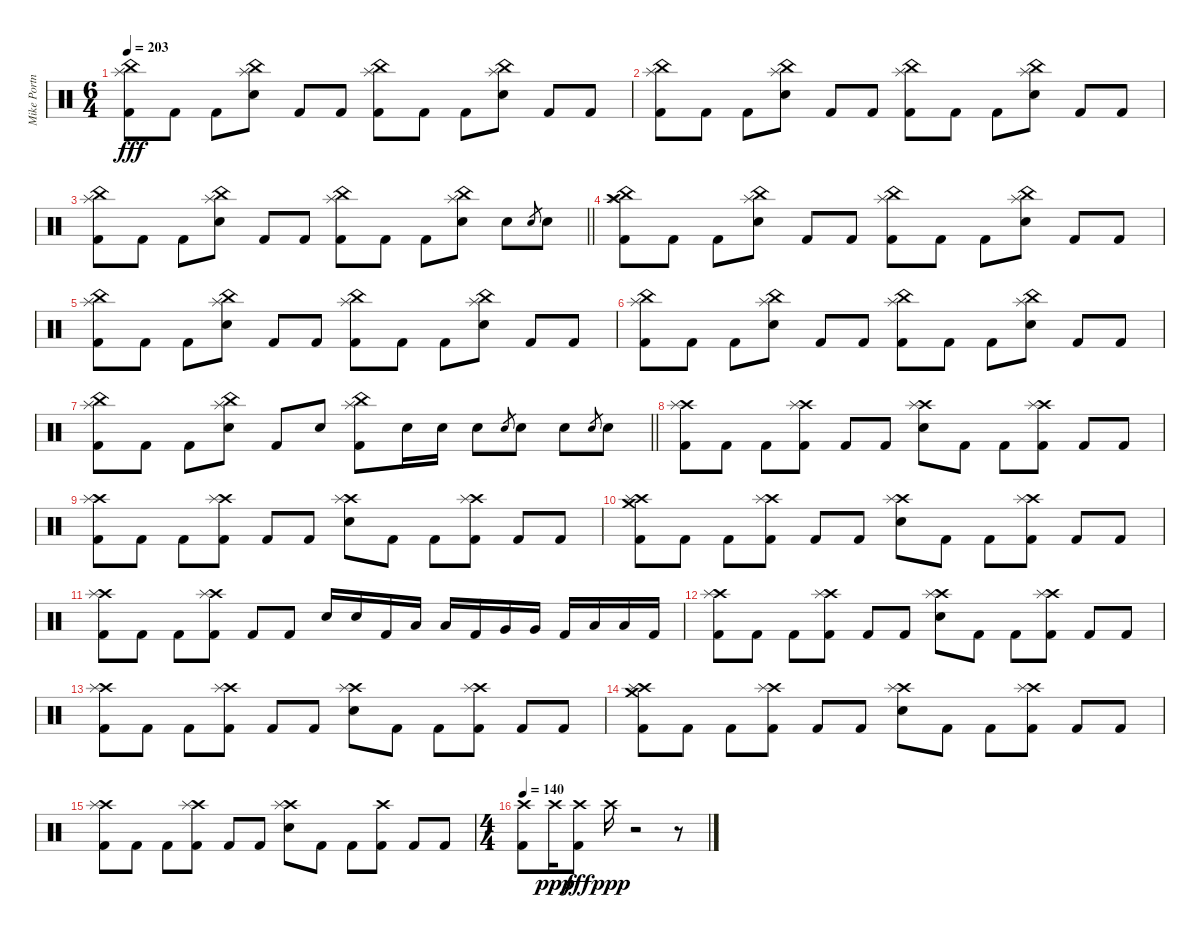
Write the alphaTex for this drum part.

\track ("Mike Portnoy" "Mike Portn") {instrument percussion}
\staff {score}
\articulation defaults
\ts (6 4)
\tempo 203
\clef neutral
\ks c
("China (hit)" "Splash (hit)" "Kick (hit) 2").8{dy fff} "Kick (hit) 2".8 "Kick (hit) 2".8 ("China (hit)" "Splash (hit)" "Electric Snare (hit)").8 "Kick (hit) 2".8 "Kick (hit) 2".8 ("China (hit)" "Splash (hit)" "Kick (hit) 2").8 "Kick (hit) 2".8 "Kick (hit) 2".8 ("China (hit)" "Splash (hit)" "Electric Snare (hit)").8 "Kick (hit) 2".8 "Kick (hit) 2".8 |
("China (hit)" "Splash (hit)" "Kick (hit) 2").8 "Kick (hit) 2".8 "Kick (hit) 2".8 ("China (hit)" "Splash (hit)" "Electric Snare (hit)").8 "Kick (hit) 2".8 "Kick (hit) 2".8 ("China (hit)" "Splash (hit)" "Kick (hit) 2").8 "Kick (hit) 2".8 "Kick (hit) 2".8 ("China (hit)" "Splash (hit)" "Electric Snare (hit)").8 "Kick (hit) 2".8 "Kick (hit) 2".8 |
\barLineRight lightlight
("China (hit)" "Splash (hit)" "Kick (hit) 2").8 "Kick (hit) 2".8 "Kick (hit) 2".8 ("China (hit)" "Splash (hit)" "Electric Snare (hit)").8 "Kick (hit) 2".8 "Kick (hit) 2".8 ("China (hit)" "Splash (hit)" "Kick (hit) 2").8 "Kick (hit) 2".8 "Kick (hit) 2".8 ("China (hit)" "Splash (hit)" "Electric Snare (hit)").8 "Electric Snare (hit)".8 "Electric Snare (hit)".8{gr} "Electric Snare (hit)".8 |
("Crash high (hit)" "China (hit)" "Splash (hit)" "Kick (hit) 2").8 "Kick (hit) 2".8 "Kick (hit) 2".8 ("China (hit)" "Splash (hit)" "Electric Snare (hit)").8 "Kick (hit) 2".8 "Kick (hit) 2".8 ("China (hit)" "Splash (hit)" "Kick (hit) 2").8 "Kick (hit) 2".8 "Kick (hit) 2".8 ("China (hit)" "Splash (hit)" "Electric Snare (hit)").8 "Kick (hit) 2".8 "Kick (hit) 2".8 |
("China (hit)" "Splash (hit)" "Kick (hit) 2").8 "Kick (hit) 2".8 "Kick (hit) 2".8 ("China (hit)" "Splash (hit)" "Electric Snare (hit)").8 "Kick (hit) 2".8 "Kick (hit) 2".8 ("China (hit)" "Splash (hit)" "Kick (hit) 2").8 "Kick (hit) 2".8 "Kick (hit) 2".8 ("China (hit)" "Splash (hit)" "Electric Snare (hit)").8 "Kick (hit) 2".8 "Kick (hit) 2".8 |
("China (hit)" "Splash (hit)" "Kick (hit) 2").8 "Kick (hit) 2".8 "Kick (hit) 2".8 ("China (hit)" "Splash (hit)" "Electric Snare (hit)").8 "Kick (hit) 2".8 "Kick (hit) 2".8 ("China (hit)" "Splash (hit)" "Kick (hit) 2").8 "Kick (hit) 2".8 "Kick (hit) 2".8 ("China (hit)" "Splash (hit)" "Electric Snare (hit)").8 "Kick (hit) 2".8 "Kick (hit) 2".8 |
\barLineRight lightlight
("China (hit)" "Splash (hit)" "Kick (hit) 2").8 "Kick (hit) 2".8 "Kick (hit) 2".8 ("China (hit)" "Splash (hit)" "Electric Snare (hit)").8 "Kick (hit) 2".8 "Electric Snare (hit)".8 ("China (hit)" "Splash (hit)" "Kick (hit) 2").8 "Electric Snare (hit)".16 "Electric Snare (hit)".16 "Electric Snare (hit)".8 "Electric Snare (hit)".8{gr} "Electric Snare (hit)".8 "Electric Snare (hit)".8 "Electric Snare (hit)".8{gr} "Electric Snare (hit)".8 |
("Crash high (hit)" "Splash (hit)" "Kick (hit) 2").8 "Kick (hit) 2".8 "Kick (hit) 2".8 ("Crash high (hit)" "Splash (hit)" "Kick (hit) 2").8 "Kick (hit) 2".8 "Kick (hit) 2".8 ("Crash high (hit)" "Splash (hit)" "Electric Snare (hit)").8 "Kick (hit) 2".8 "Kick (hit) 2".8 ("Crash high (hit)" "Splash (hit)" "Kick (hit) 2").8 "Kick (hit) 2".8 "Kick (hit) 2".8 |
("Crash high (hit)" "Splash (hit)" "Kick (hit) 2").8 "Kick (hit) 2".8 "Kick (hit) 2".8 ("Crash high (hit)" "Splash (hit)" "Kick (hit) 2").8 "Kick (hit) 2".8 "Kick (hit) 2".8 ("Crash high (hit)" "Splash (hit)" "Electric Snare (hit)").8 "Kick (hit) 2".8 "Kick (hit) 2".8 ("Crash high (hit)" "Splash (hit)" "Kick (hit) 2").8 "Kick (hit) 2".8 "Kick (hit) 2".8 |
("Crash medium (hit)" "Crash high (hit)" "Splash (hit)" "Kick (hit) 2").8 "Kick (hit) 2".8 "Kick (hit) 2".8 ("Crash high (hit)" "Splash (hit)" "Kick (hit) 2").8 "Kick (hit) 2".8 "Kick (hit) 2".8 ("Crash high (hit)" "Splash (hit)" "Electric Snare (hit)").8 "Kick (hit) 2".8 "Kick (hit) 2".8 ("Crash high (hit)" "Splash (hit)" "Kick (hit) 2").8 "Kick (hit) 2".8 "Kick (hit) 2".8 |
("Crash high (hit)" "Splash (hit)" "Kick (hit) 2").8 "Kick (hit) 2".8 "Kick (hit) 2".8 ("Crash high (hit)" "Splash (hit)" "Kick (hit) 2").8 "Kick (hit) 2".8 "Kick (hit) 2".8 "Electric Snare (hit)".16 "Electric Snare (hit)".16 "Kick (hit) 2".16 "Low Tom (hit)".16 "Low Tom (hit)".16 "Kick (hit) 2".16 "Very Low Tom (hit)".16 "Very Low Tom (hit)".16 "Kick (hit) 2".16 "Low Floor Tom (hit)".16 "Low Floor Tom (hit)".16 "Kick (hit) 2".16 |
("Crash high (hit)" "Splash (hit)" "Kick (hit) 2").8 "Kick (hit) 2".8 "Kick (hit) 2".8 ("Crash high (hit)" "Splash (hit)" "Kick (hit) 2").8 "Kick (hit) 2".8 "Kick (hit) 2".8 ("Crash high (hit)" "Splash (hit)" "Electric Snare (hit)").8 "Kick (hit) 2".8 "Kick (hit) 2".8 ("Crash high (hit)" "Splash (hit)" "Kick (hit) 2").8 "Kick (hit) 2".8 "Kick (hit) 2".8 |
("Crash high (hit)" "Splash (hit)" "Kick (hit) 2").8 "Kick (hit) 2".8 "Kick (hit) 2".8 ("Crash high (hit)" "Splash (hit)" "Kick (hit) 2").8 "Kick (hit) 2".8 "Kick (hit) 2".8 ("Crash high (hit)" "Splash (hit)" "Electric Snare (hit)").8 "Kick (hit) 2".8 "Kick (hit) 2".8 ("Crash high (hit)" "Splash (hit)" "Kick (hit) 2").8 "Kick (hit) 2".8 "Kick (hit) 2".8 |
("Crash medium (hit)" "Crash high (hit)" "Splash (hit)" "Kick (hit) 2").8 "Kick (hit) 2".8 "Kick (hit) 2".8 ("Crash high (hit)" "Splash (hit)" "Kick (hit) 2").8 "Kick (hit) 2".8 "Kick (hit) 2".8 ("Crash high (hit)" "Splash (hit)" "Electric Snare (hit)").8 "Kick (hit) 2".8 "Kick (hit) 2".8 ("Crash high (hit)" "Splash (hit)" "Kick (hit) 2").8 "Kick (hit) 2".8 "Kick (hit) 2".8 |
("Crash high (hit)" "Splash (hit)" "Kick (hit) 2").8 "Kick (hit) 2".8 "Kick (hit) 2".8 ("Crash high (hit)" "Splash (hit)" "Kick (hit) 2").8 "Kick (hit) 2".8 "Kick (hit) 2".8 ("Crash high (hit)" "Splash (hit)" "Electric Snare (hit)").8 "Kick (hit) 2".8 "Kick (hit) 2".8 ("Crash high (hit)" "Kick (hit) 2").8 "Kick (hit) 2".8 "Kick (hit) 2".8 |
\ts (4 4)
\tempo 140
("Crash high (hit)" "Kick (hit) 2").8 "Crash high (hit)".16{dy ppp} ("Crash high (hit)" "Kick (hit) 2").8{dy fff} "Crash high (hit)".16{dy ppp} r.2 r.8
